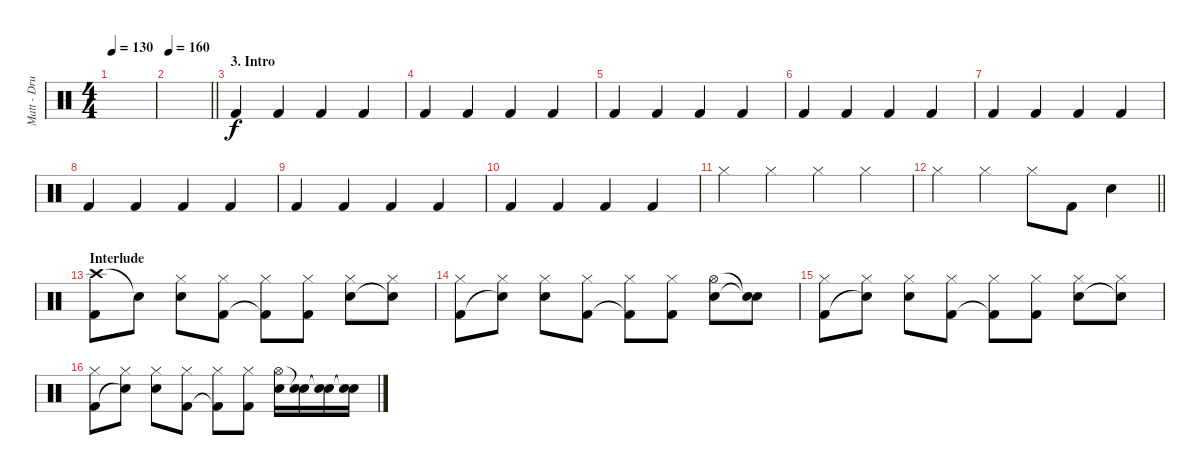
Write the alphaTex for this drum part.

\track ("Matt - Drums" "Matt - Dru") {instrument percussion}
\staff {score}
\articulation defaults
\ts (4 4)
\tempo 130
\clef neutral
\ks c
|
\tempo 160
\barLineRight lightlight
|
\section ("" "3. Intro")
"Kick (hit) 2".4 "Kick (hit) 2".4 "Kick (hit) 2".4 "Kick (hit) 2".4 |
"Kick (hit) 2".4 "Kick (hit) 2".4 "Kick (hit) 2".4 "Kick (hit) 2".4 |
"Kick (hit) 2".4 "Kick (hit) 2".4 "Kick (hit) 2".4 "Kick (hit) 2".4 |
"Kick (hit) 2".4 "Kick (hit) 2".4 "Kick (hit) 2".4 "Kick (hit) 2".4 |
"Kick (hit) 2".4 "Kick (hit) 2".4 "Kick (hit) 2".4 "Kick (hit) 2".4 |
"Kick (hit) 2".4 "Kick (hit) 2".4 "Kick (hit) 2".4 "Kick (hit) 2".4 |
"Kick (hit) 2".4 "Kick (hit) 2".4 "Kick (hit) 2".4 "Kick (hit) 2".4 |
"Kick (hit) 2".4 "Kick (hit) 2".4 "Kick (hit) 2".4 "Kick (hit) 2".4 |
"Hi-Hat (closed)".4 "Hi-Hat (closed)".4 "Hi-Hat (closed)".4 "Hi-Hat (closed)".4 |
\barLineRight lightlight "Hi-Hat (closed)".4 "Hi-Hat (closed)".4 "Hi-Hat (closed)".8 "Kick (hit) 2".8 "Snare (hit) 2".4
|
\section ("" "Interlude")
("Crash high (hit)" "Kick (hit) 2").8 "Snare (hit)"{t}.8 ("Hi-Hat (closed)" "Snare (hit) 2").8 ("Hi-Hat (closed)" "Kick (hit) 2").8 ("Hi-Hat (closed)" "Kick (hit) 2"{t}).8 ("Hi-Hat (closed)" "Kick (hit) 2").8 ("Hi-Hat (closed)" "Snare (hit) 2").8 ("Hi-Hat (closed)" "Snare (hit)"{t}).8 |
("Hi-Hat (closed)" "Kick (hit) 2").8 ("Hi-Hat (closed)" "Snare (hit)"{t}).8 ("Hi-Hat (closed)" "Snare (hit) 2").8 ("Hi-Hat (closed)" "Kick (hit) 2").8 ("Hi-Hat (closed)" "Kick (hit) 2"{t}).8 ("Hi-Hat (closed)" "Kick (hit) 2").8 ("Hi-Hat (open)" "Snare (hit) 2").8 ("Snare (hit)"{t} "Snare (hit)"{t}).8 |
("Hi-Hat (closed)" "Kick (hit) 2").8 ("Hi-Hat (closed)" "Snare (hit)"{t}).8 ("Hi-Hat (closed)" "Snare (hit) 2").8 ("Hi-Hat (closed)" "Kick (hit) 2").8 ("Hi-Hat (closed)" "Kick (hit) 2"{t}).8 ("Hi-Hat (closed)" "Kick (hit) 2").8 ("Hi-Hat (closed)" "Snare (hit) 2").8 ("Hi-Hat (closed)" "Snare (hit) 2"{t}).8 |
("Hi-Hat (closed)" "Kick (hit) 2").8 ("Hi-Hat (closed)" "Snare (hit)"{t}).8 ("Hi-Hat (closed)" "Snare (hit) 2").8 ("Hi-Hat (closed)" "Kick (hit) 2").8 ("Hi-Hat (closed)" "Kick (hit) 2"{t}).8 ("Hi-Hat (closed)" "Kick (hit) 2").8 ("Hi-Hat (open)" "Snare (hit) 2").16 ("Snare (hit)"{t} "Snare (hit) 2").16 ("Snare (hit)"{t} "Snare (hit) 2"{t}).16 ("Snare (hit)"{t} "Snare (hit) 2"{t}).16
